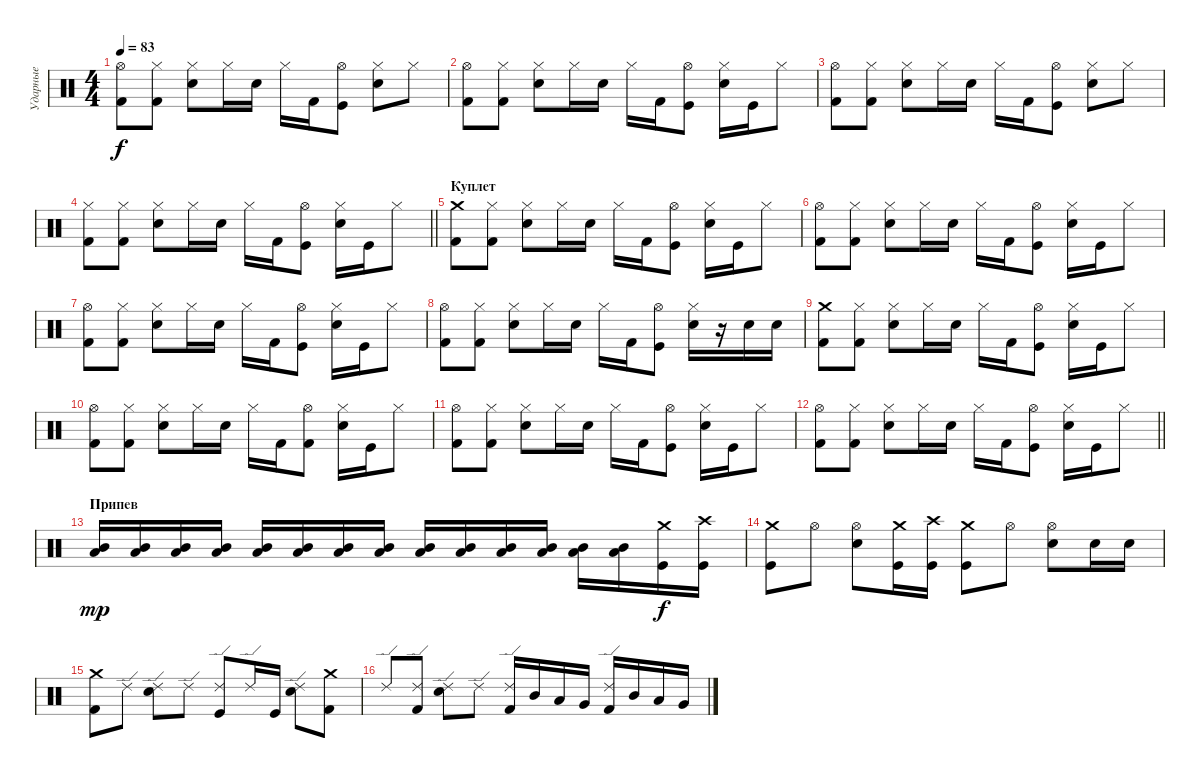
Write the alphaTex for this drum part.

\track ("Ударные" "Ударные") {instrument percussion}
\staff {score}
\articulation defaults
\ts (4 4)
\tempo 83
\clef neutral
\ks c
("Hi-Hat (open)" "Kick (hit) 2").8{dy f} ("Hi-Hat (closed)" "Kick (hit) 2").8 ("Hi-Hat (closed)" "Snare (hit) 2").8 "Hi-Hat (closed)".16 "Snare (hit) 2".16 "Hi-Hat (closed)".16 "Kick (hit) 2".16 ("Hi-Hat (open)" "Kick (hit)").8 ("Hi-Hat (closed)" "Snare (hit) 2").8 "Hi-Hat (closed)".8 |
("Hi-Hat (open)" "Kick (hit) 2").8 ("Hi-Hat (closed)" "Kick (hit) 2").8 ("Hi-Hat (closed)" "Snare (hit) 2").8 "Hi-Hat (closed)".16 "Snare (hit) 2".16 "Hi-Hat (closed)".16 "Kick (hit) 2".16 ("Hi-Hat (open)" "Kick (hit)").8 ("Hi-Hat (closed)" "Snare (hit) 2").16 "Kick (hit)".16 "Hi-Hat (closed)".8 |
("Hi-Hat (open)" "Kick (hit) 2").8 ("Hi-Hat (closed)" "Kick (hit) 2").8 ("Hi-Hat (closed)" "Snare (hit) 2").8 "Hi-Hat (closed)".16 "Snare (hit) 2".16 "Hi-Hat (closed)".16 "Kick (hit) 2".16 ("Hi-Hat (open)" "Kick (hit)").8 ("Hi-Hat (closed)" "Snare (hit) 2").8 "Hi-Hat (closed)".8 |
\barLineRight lightlight
("Hi-Hat (closed)" "Kick (hit) 2").8 ("Hi-Hat (closed)" "Kick (hit) 2").8 ("Hi-Hat (closed)" "Snare (hit) 2").8 "Hi-Hat (closed)".16 "Snare (hit) 2".16 "Hi-Hat (closed)".16 "Kick (hit) 2".16 ("Hi-Hat (open)" "Kick (hit)").8 ("Hi-Hat (closed)" "Snare (hit) 2").16 "Kick (hit)".16 "Hi-Hat (closed)".8 |
\section ("" "Куплет")
("Crash medium (hit)" "Kick (hit) 2").8 ("Hi-Hat (closed)" "Kick (hit) 2").8 ("Hi-Hat (closed)" "Snare (hit) 2").8 "Hi-Hat (closed)".16 "Snare (hit) 2".16 "Hi-Hat (closed)".16 "Kick (hit) 2".16 ("Hi-Hat (open)" "Kick (hit)").8 ("Hi-Hat (closed)" "Snare (hit) 2").16 "Kick (hit)".16 "Hi-Hat (closed)".8 |
("Hi-Hat (open)" "Kick (hit) 2").8 ("Hi-Hat (closed)" "Kick (hit) 2").8 ("Hi-Hat (closed)" "Snare (hit) 2").8 "Hi-Hat (closed)".16 "Snare (hit) 2".16 "Hi-Hat (closed)".16 "Kick (hit) 2".16 ("Hi-Hat (open)" "Kick (hit)").8 ("Hi-Hat (closed)" "Snare (hit) 2").16 "Kick (hit)".16 "Hi-Hat (closed)".8 |
("Hi-Hat (open)" "Kick (hit) 2").8 ("Hi-Hat (closed)" "Kick (hit) 2").8 ("Hi-Hat (closed)" "Snare (hit) 2").8 "Hi-Hat (closed)".16 "Snare (hit) 2".16 "Hi-Hat (closed)".16 "Kick (hit) 2".16 ("Hi-Hat (open)" "Kick (hit)").8 ("Hi-Hat (closed)" "Snare (hit) 2").16 "Kick (hit)".16 "Hi-Hat (closed)".8 |
("Hi-Hat (open)" "Kick (hit) 2").8 ("Hi-Hat (closed)" "Kick (hit) 2").8 ("Hi-Hat (closed)" "Snare (hit) 2").8 "Hi-Hat (closed)".16 "Snare (hit) 2".16 "Hi-Hat (closed)".16 "Kick (hit) 2".16 ("Hi-Hat (open)" "Kick (hit)").8 ("Hi-Hat (closed)" "Snare (hit) 2").16 r.16 "Snare (hit) 2".16 "Snare (hit) 2".16 |
("Crash medium (hit)" "Kick (hit) 2").8 ("Hi-Hat (closed)" "Kick (hit) 2").8 ("Hi-Hat (closed)" "Snare (hit) 2").8 "Hi-Hat (closed)".16 "Snare (hit) 2".16 "Hi-Hat (closed)".16 "Kick (hit) 2".16 ("Hi-Hat (open)" "Kick (hit)").8 ("Hi-Hat (closed)" "Snare (hit) 2").16 "Kick (hit)".16 "Hi-Hat (closed)".8 |
("Hi-Hat (open)" "Kick (hit) 2").8 ("Hi-Hat (closed)" "Kick (hit) 2").8 ("Hi-Hat (closed)" "Snare (hit) 2").8 "Hi-Hat (closed)".16 "Snare (hit) 2".16 "Hi-Hat (closed)".16 "Kick (hit) 2".16 ("Hi-Hat (open)" "Kick (hit) 2").8 ("Hi-Hat (closed)" "Snare (hit) 2").16 "Kick (hit)".16 "Hi-Hat (closed)".8 |
("Hi-Hat (open)" "Kick (hit) 2").8 ("Hi-Hat (closed)" "Kick (hit) 2").8 ("Hi-Hat (closed)" "Snare (hit) 2").8 "Hi-Hat (closed)".16 "Snare (hit) 2".16 "Hi-Hat (closed)".16 "Kick (hit) 2".16 ("Hi-Hat (open)" "Kick (hit)").8 ("Hi-Hat (closed)" "Snare (hit) 2").16 "Kick (hit)".16 "Hi-Hat (closed)".8 |
\barLineRight lightlight
("Hi-Hat (open)" "Kick (hit) 2").8 ("Hi-Hat (closed)" "Kick (hit) 2").8 ("Hi-Hat (closed)" "Snare (hit) 2").8 "Hi-Hat (closed)".16 "Snare (hit) 2".16 "Hi-Hat (closed)".16 "Kick (hit) 2".16 ("Hi-Hat (open)" "Kick (hit)").8 ("Hi-Hat (closed)" "Snare (hit) 2").16 "Kick (hit)".16 "Hi-Hat (closed)".8 |
\section ("" "Припев")
("Low Tom (hit)" "Mid Tom (hit)").16{dy mp} ("Low Tom (hit)" "Mid Tom (hit)").16 ("Low Tom (hit)" "Mid Tom (hit)").16 ("Low Tom (hit)" "Mid Tom (hit)").16 ("Low Tom (hit)" "Mid Tom (hit)").16 ("Low Tom (hit)" "Mid Tom (hit)").16 ("Low Tom (hit)" "Mid Tom (hit)").16 ("Low Tom (hit)" "Mid Tom (hit)").16 ("Low Tom (hit)" "Mid Tom (hit)").16 ("Low Tom (hit)" "Mid Tom (hit)").16 ("Low Tom (hit)" "Mid Tom (hit)").16 ("Low Tom (hit)" "Mid Tom (hit)").16 ("Low Tom (hit)" "Mid Tom (hit)").16 ("Low Tom (hit)" "Mid Tom (hit)").16 ("Crash medium (hit)" "Kick (hit)").16{dy f} ("Crash high (hit)" "Kick (hit)").16 |
("Crash medium (hit)" "Kick (hit)").8 "Hi-Hat (open)".8 ("Hi-Hat (open)" "Snare (hit) 2").8 ("Crash medium (hit)" "Kick (hit)").16 ("Crash high (hit)" "Kick (hit)").16 ("Crash medium (hit)" "Kick (hit)").8 "Hi-Hat (open)".8 ("Hi-Hat (open)" "Snare (hit) 2").8 "Snare (hit) 2".16 "Snare (hit) 2".16 |
("Crash medium (hit)" "Kick (hit) 2").8 "Ride (edge) 2".8 ("Ride (edge) 2" "Snare (hit) 2").8 "Ride (edge) 2".8 ("Ride (edge) 2" "Kick (hit)").8 "Ride (edge) 2".16 "Kick (hit)".16 ("Ride (edge) 2" "Snare (hit) 2").8 ("Crash medium (hit)" "Kick (hit) 2").8 |
"Ride (edge) 2".8 ("Ride (edge) 2" "Kick (hit) 2").8 ("Ride (edge) 2" "Snare (hit) 2").8 "Ride (edge) 2".8 ("Kick (hit) 2" "Ride (edge) 2").16 "Mid Tom (hit)".16 "Low Tom (hit)".16 "Very Low Tom (hit)".16 ("Kick (hit) 2" "Ride (edge) 2").16 "Mid Tom (hit)".16 "Low Tom (hit)".16 "Very Low Tom (hit)".16
